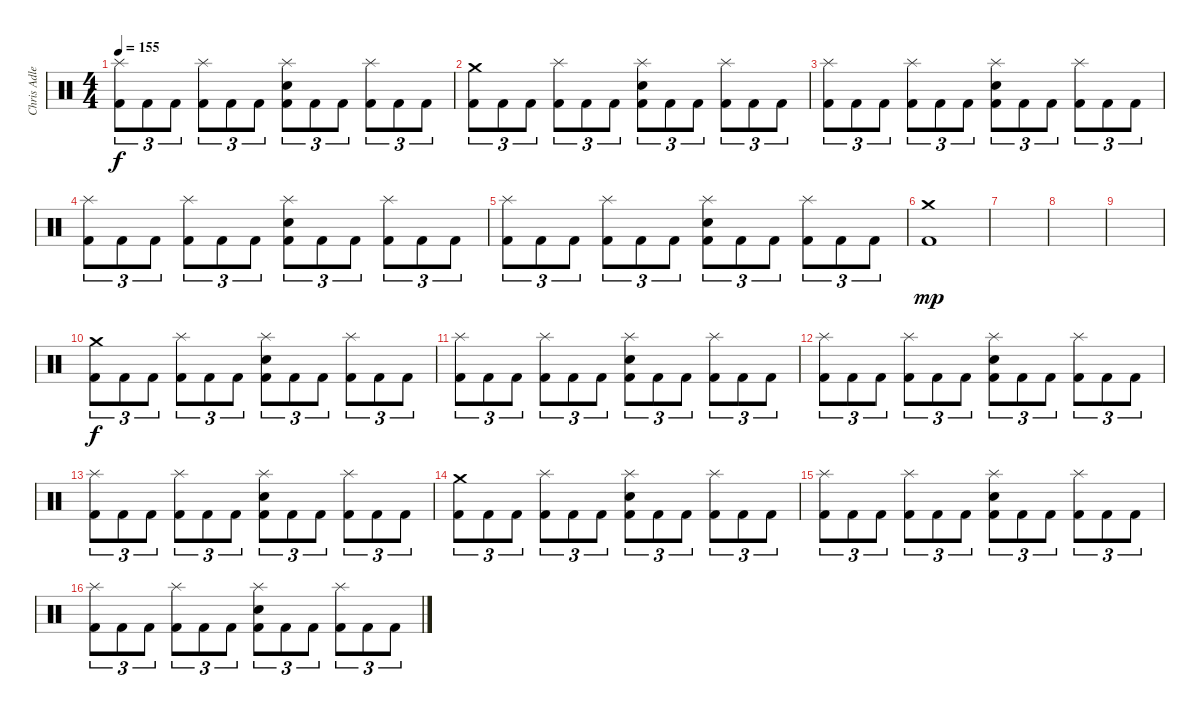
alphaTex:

\track ("Chris Adler" "Chris Adle") {instrument percussion}
\staff {score}
\articulation defaults
\ts (4 4)
\tempo 155
\clef neutral
\ks c
("Splash (hit)" "Kick (hit) 2").8{tu (3 2) dy f} "Kick (hit) 2".8{tu (3 2)} "Kick (hit) 2".8{tu (3 2)} ("Splash (hit)" "Kick (hit) 2").8{tu (3 2)} "Kick (hit) 2".8{tu (3 2)} "Kick (hit) 2".8{tu (3 2)} ("Splash (hit)" "Snare (hit) 2" "Kick (hit) 2").8{tu (3 2)} "Kick (hit) 2".8{tu (3 2)} "Kick (hit) 2".8{tu (3 2)} ("Splash (hit)" "Kick (hit) 2").8{tu (3 2)} "Kick (hit) 2".8{tu (3 2)} "Kick (hit) 2".8{tu (3 2)} |
("Crash medium (hit)" "Kick (hit) 2").8{tu (3 2)} "Kick (hit) 2".8{tu (3 2)} "Kick (hit) 2".8{tu (3 2)} ("Splash (hit)" "Kick (hit) 2").8{tu (3 2)} "Kick (hit) 2".8{tu (3 2)} "Kick (hit) 2".8{tu (3 2)} ("Splash (hit)" "Snare (hit) 2" "Kick (hit) 2").8{tu (3 2)} "Kick (hit) 2".8{tu (3 2)} "Kick (hit) 2".8{tu (3 2)} ("Splash (hit)" "Kick (hit) 2").8{tu (3 2)} "Kick (hit) 2".8{tu (3 2)} "Kick (hit) 2".8{tu (3 2)} |
("Splash (hit)" "Kick (hit) 2").8{tu (3 2)} "Kick (hit) 2".8{tu (3 2)} "Kick (hit) 2".8{tu (3 2)} ("Splash (hit)" "Kick (hit) 2").8{tu (3 2)} "Kick (hit) 2".8{tu (3 2)} "Kick (hit) 2".8{tu (3 2)} ("Splash (hit)" "Snare (hit) 2" "Kick (hit) 2").8{tu (3 2)} "Kick (hit) 2".8{tu (3 2)} "Kick (hit) 2".8{tu (3 2)} ("Splash (hit)" "Kick (hit) 2").8{tu (3 2)} "Kick (hit) 2".8{tu (3 2)} "Kick (hit) 2".8{tu (3 2)} |
("Splash (hit)" "Kick (hit) 2").8{tu (3 2)} "Kick (hit) 2".8{tu (3 2)} "Kick (hit) 2".8{tu (3 2)} ("Splash (hit)" "Kick (hit) 2").8{tu (3 2)} "Kick (hit) 2".8{tu (3 2)} "Kick (hit) 2".8{tu (3 2)} ("Splash (hit)" "Snare (hit) 2" "Kick (hit) 2").8{tu (3 2)} "Kick (hit) 2".8{tu (3 2)} "Kick (hit) 2".8{tu (3 2)} ("Splash (hit)" "Kick (hit) 2").8{tu (3 2)} "Kick (hit) 2".8{tu (3 2)} "Kick (hit) 2".8{tu (3 2)} |
("Splash (hit)" "Kick (hit) 2").8{tu (3 2)} "Kick (hit) 2".8{tu (3 2)} "Kick (hit) 2".8{tu (3 2)} ("Splash (hit)" "Kick (hit) 2").8{tu (3 2)} "Kick (hit) 2".8{tu (3 2)} "Kick (hit) 2".8{tu (3 2)} ("Splash (hit)" "Snare (hit) 2" "Kick (hit) 2").8{tu (3 2)} "Kick (hit) 2".8{tu (3 2)} "Kick (hit) 2".8{tu (3 2)} ("Splash (hit)" "Kick (hit) 2").8{tu (3 2)} "Kick (hit) 2".8{tu (3 2)} "Kick (hit) 2".8{tu (3 2)} |
("Crash medium (hit)" "Kick (hit) 2").1{dy mp} |
|
|
|
("Crash medium (hit)" "Kick (hit) 2").8{tu (3 2) dy f} "Kick (hit) 2".8{tu (3 2)} "Kick (hit) 2".8{tu (3 2)} ("Splash (hit)" "Kick (hit) 2").8{tu (3 2)} "Kick (hit) 2".8{tu (3 2)} "Kick (hit) 2".8{tu (3 2)} ("Splash (hit)" "Snare (hit) 2" "Kick (hit) 2").8{tu (3 2)} "Kick (hit) 2".8{tu (3 2)} "Kick (hit) 2".8{tu (3 2)} ("Splash (hit)" "Kick (hit) 2").8{tu (3 2)} "Kick (hit) 2".8{tu (3 2)} "Kick (hit) 2".8{tu (3 2)} |
("Splash (hit)" "Kick (hit) 2").8{tu (3 2)} "Kick (hit) 2".8{tu (3 2)} "Kick (hit) 2".8{tu (3 2)} ("Splash (hit)" "Kick (hit) 2").8{tu (3 2)} "Kick (hit) 2".8{tu (3 2)} "Kick (hit) 2".8{tu (3 2)} ("Splash (hit)" "Snare (hit) 2" "Kick (hit) 2").8{tu (3 2)} "Kick (hit) 2".8{tu (3 2)} "Kick (hit) 2".8{tu (3 2)} ("Splash (hit)" "Kick (hit) 2").8{tu (3 2)} "Kick (hit) 2".8{tu (3 2)} "Kick (hit) 2".8{tu (3 2)} |
("Splash (hit)" "Kick (hit) 2").8{tu (3 2)} "Kick (hit) 2".8{tu (3 2)} "Kick (hit) 2".8{tu (3 2)} ("Splash (hit)" "Kick (hit) 2").8{tu (3 2)} "Kick (hit) 2".8{tu (3 2)} "Kick (hit) 2".8{tu (3 2)} ("Splash (hit)" "Snare (hit) 2" "Kick (hit) 2").8{tu (3 2)} "Kick (hit) 2".8{tu (3 2)} "Kick (hit) 2".8{tu (3 2)} ("Splash (hit)" "Kick (hit) 2").8{tu (3 2)} "Kick (hit) 2".8{tu (3 2)} "Kick (hit) 2".8{tu (3 2)} |
("Splash (hit)" "Kick (hit) 2").8{tu (3 2)} "Kick (hit) 2".8{tu (3 2)} "Kick (hit) 2".8{tu (3 2)} ("Splash (hit)" "Kick (hit) 2").8{tu (3 2)} "Kick (hit) 2".8{tu (3 2)} "Kick (hit) 2".8{tu (3 2)} ("Splash (hit)" "Snare (hit) 2" "Kick (hit) 2").8{tu (3 2)} "Kick (hit) 2".8{tu (3 2)} "Kick (hit) 2".8{tu (3 2)} ("Splash (hit)" "Kick (hit) 2").8{tu (3 2)} "Kick (hit) 2".8{tu (3 2)} "Kick (hit) 2".8{tu (3 2)} |
("Crash medium (hit)" "Kick (hit) 2").8{tu (3 2)} "Kick (hit) 2".8{tu (3 2)} "Kick (hit) 2".8{tu (3 2)} ("Splash (hit)" "Kick (hit) 2").8{tu (3 2)} "Kick (hit) 2".8{tu (3 2)} "Kick (hit) 2".8{tu (3 2)} ("Splash (hit)" "Snare (hit) 2" "Kick (hit) 2").8{tu (3 2)} "Kick (hit) 2".8{tu (3 2)} "Kick (hit) 2".8{tu (3 2)} ("Splash (hit)" "Kick (hit) 2").8{tu (3 2)} "Kick (hit) 2".8{tu (3 2)} "Kick (hit) 2".8{tu (3 2)} |
("Splash (hit)" "Kick (hit) 2").8{tu (3 2)} "Kick (hit) 2".8{tu (3 2)} "Kick (hit) 2".8{tu (3 2)} ("Splash (hit)" "Kick (hit) 2").8{tu (3 2)} "Kick (hit) 2".8{tu (3 2)} "Kick (hit) 2".8{tu (3 2)} ("Splash (hit)" "Snare (hit) 2" "Kick (hit) 2").8{tu (3 2)} "Kick (hit) 2".8{tu (3 2)} "Kick (hit) 2".8{tu (3 2)} ("Splash (hit)" "Kick (hit) 2").8{tu (3 2)} "Kick (hit) 2".8{tu (3 2)} "Kick (hit) 2".8{tu (3 2)} |
("Splash (hit)" "Kick (hit) 2").8{tu (3 2)} "Kick (hit) 2".8{tu (3 2)} "Kick (hit) 2".8{tu (3 2)} ("Splash (hit)" "Kick (hit) 2").8{tu (3 2)} "Kick (hit) 2".8{tu (3 2)} "Kick (hit) 2".8{tu (3 2)} ("Splash (hit)" "Snare (hit) 2" "Kick (hit) 2").8{tu (3 2)} "Kick (hit) 2".8{tu (3 2)} "Kick (hit) 2".8{tu (3 2)} ("Splash (hit)" "Kick (hit) 2").8{tu (3 2)} "Kick (hit) 2".8{tu (3 2)} "Kick (hit) 2".8{tu (3 2)}
